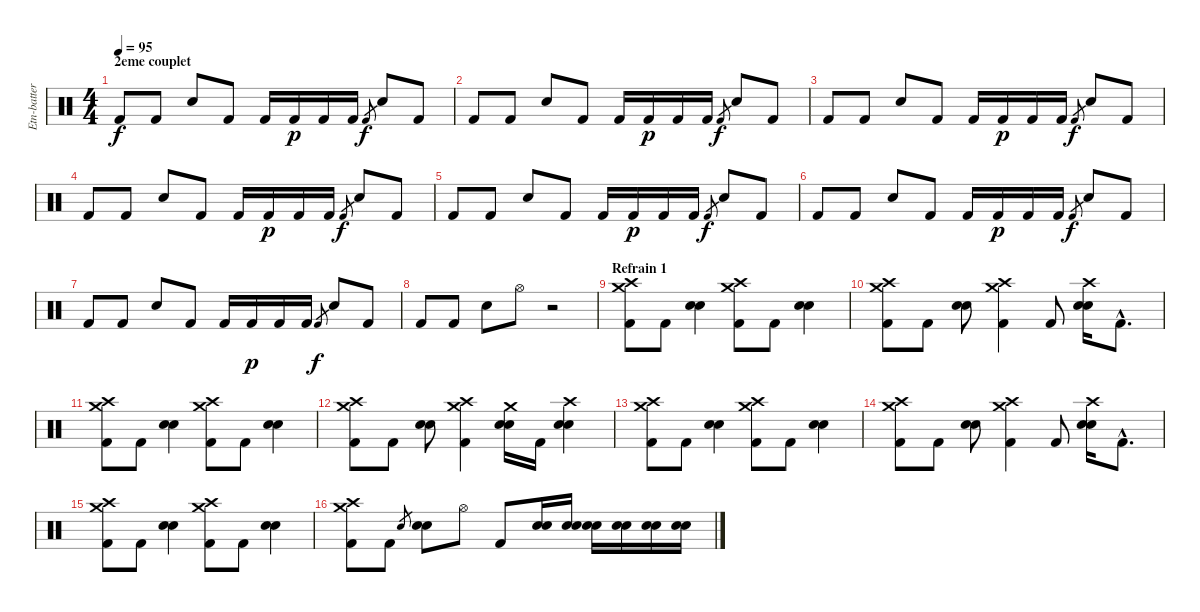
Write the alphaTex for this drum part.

\track ("Etn-batterie" "Etn-batter") {instrument percussion}
\staff {score}
\articulation defaults
\ts (4 4)
\section ("" "2eme couplet")
\tempo 95
\clef neutral
\ks c "Kick (hit) 2".8{dy f volume 16} "Kick (hit) 2".8 "Electric Snare (hit)".8 "Kick (hit) 2".8 "Kick (hit) 2".16 "Kick (hit) 2".16{dy p} "Kick (hit) 2".16 "Kick (hit) 2".16 "Kick (hit) 2".8{gr dy f} "Electric Snare (hit)".8 "Kick (hit) 2".8
|
"Kick (hit) 2".8{volume 16} "Kick (hit) 2".8 "Electric Snare (hit)".8 "Kick (hit) 2".8 "Kick (hit) 2".16 "Kick (hit) 2".16{dy p} "Kick (hit) 2".16 "Kick (hit) 2".16 "Kick (hit) 2".8{gr dy f} "Electric Snare (hit)".8 "Kick (hit) 2".8 |
"Kick (hit) 2".8{volume 16} "Kick (hit) 2".8 "Electric Snare (hit)".8 "Kick (hit) 2".8 "Kick (hit) 2".16 "Kick (hit) 2".16{dy p} "Kick (hit) 2".16 "Kick (hit) 2".16 "Kick (hit) 2".8{gr dy f} "Electric Snare (hit)".8 "Kick (hit) 2".8 |
"Kick (hit) 2".8{volume 16} "Kick (hit) 2".8 "Electric Snare (hit)".8 "Kick (hit) 2".8 "Kick (hit) 2".16 "Kick (hit) 2".16{dy p} "Kick (hit) 2".16 "Kick (hit) 2".16 "Kick (hit) 2".8{gr dy f} "Electric Snare (hit)".8 "Kick (hit) 2".8 |
"Kick (hit) 2".8{volume 16} "Kick (hit) 2".8 "Electric Snare (hit)".8 "Kick (hit) 2".8 "Kick (hit) 2".16 "Kick (hit) 2".16{dy p} "Kick (hit) 2".16 "Kick (hit) 2".16 "Kick (hit) 2".8{gr dy f} "Electric Snare (hit)".8 "Kick (hit) 2".8 |
"Kick (hit) 2".8{volume 16} "Kick (hit) 2".8 "Electric Snare (hit)".8 "Kick (hit) 2".8 "Kick (hit) 2".16 "Kick (hit) 2".16{dy p} "Kick (hit) 2".16 "Kick (hit) 2".16 "Kick (hit) 2".8{gr dy f} "Electric Snare (hit)".8 "Kick (hit) 2".8 |
"Kick (hit) 2".8{volume 16} "Kick (hit) 2".8 "Electric Snare (hit)".8 "Kick (hit) 2".8 "Kick (hit) 2".16 "Kick (hit) 2".16{dy p} "Kick (hit) 2".16 "Kick (hit) 2".16 "Kick (hit) 2".8{gr dy f} "Electric Snare (hit)".8 "Kick (hit) 2".8 |
"Kick (hit) 2".8 "Kick (hit) 2".8 "Electric Snare (hit)".8 "Hi-Hat (open)".8 r.2 |
\section ("" "Refrain 1")
("Kick (hit) 2" "Crash medium (hit)" "Crash high (hit)").8{volume 16} "Kick (hit) 2".8 ("Electric Snare (hit)" "Electric Snare (hit)").4 ("Kick (hit) 2" "Crash medium (hit)" "Crash high (hit)").8 "Kick (hit) 2".8 ("Electric Snare (hit)" "Electric Snare (hit)").4 |
("Kick (hit) 2" "Crash medium (hit)" "Crash high (hit)").8 "Kick (hit) 2".8 ("Electric Snare (hit)" "Electric Snare (hit)").8 ("Kick (hit) 2" "Crash medium (hit)" "Crash high (hit)").4 "Kick (hit) 2".8 ("Electric Snare (hit)" "Electric Snare (hit)" "Crash high (hit)").16 "Kick (hit) 2"{hac}.8{d} |
("Kick (hit) 2" "Crash medium (hit)" "Crash high (hit)").8 "Kick (hit) 2".8 ("Electric Snare (hit)" "Electric Snare (hit)").4 ("Kick (hit) 2" "Crash medium (hit)" "Crash high (hit)").8 "Kick (hit) 2".8 ("Electric Snare (hit)" "Electric Snare (hit)").4 |
("Kick (hit) 2" "Crash medium (hit)" "Crash high (hit)").8 "Kick (hit) 2".8 ("Electric Snare (hit)" "Electric Snare (hit)").8 ("Kick (hit) 2" "Crash medium (hit)" "Crash high (hit)").4 ("Electric Snare (hit)" "Electric Snare (hit)" "Crash medium (hit)").16 "Kick (hit) 2".16 ("Electric Snare (hit)" "Electric Snare (hit)" "Crash high (hit)").4 |
("Kick (hit) 2" "Crash medium (hit)" "Crash high (hit)").8 "Kick (hit) 2".8 ("Electric Snare (hit)" "Electric Snare (hit)").4 ("Kick (hit) 2" "Crash medium (hit)" "Crash high (hit)").8 "Kick (hit) 2".8 ("Electric Snare (hit)" "Electric Snare (hit)").4 |
("Kick (hit) 2" "Crash medium (hit)" "Crash high (hit)").8 "Kick (hit) 2".8 ("Electric Snare (hit)" "Electric Snare (hit)").8 ("Kick (hit) 2" "Crash medium (hit)" "Crash high (hit)").4 "Kick (hit) 2".8 ("Electric Snare (hit)" "Electric Snare (hit)" "Crash high (hit)").16 "Kick (hit) 2"{hac}.8{d} |
("Kick (hit) 2" "Crash medium (hit)" "Crash high (hit)").8 "Kick (hit) 2".8 ("Electric Snare (hit)" "Electric Snare (hit)").4 ("Kick (hit) 2" "Crash medium (hit)" "Crash high (hit)").8 "Kick (hit) 2".8 ("Electric Snare (hit)" "Electric Snare (hit)").4 |
("Kick (hit) 2" "Crash medium (hit)" "Crash high (hit)").8 "Kick (hit) 2".8 "Electric Snare (hit)".8{gr} ("Electric Snare (hit)" "Electric Snare (hit)").8 "Hi-Hat (open)".8 "Kick (hit) 2".8 ("Electric Snare (hit)" "Electric Snare (hit)").16 ("Electric Snare (hit)" "Electric Snare (hit)").16 ("Electric Snare (hit)" "Electric Snare (hit)").16 ("Electric Snare (hit)" "Electric Snare (hit)").16 ("Electric Snare (hit)" "Electric Snare (hit)").16 ("Electric Snare (hit)" "Electric Snare (hit)").16
